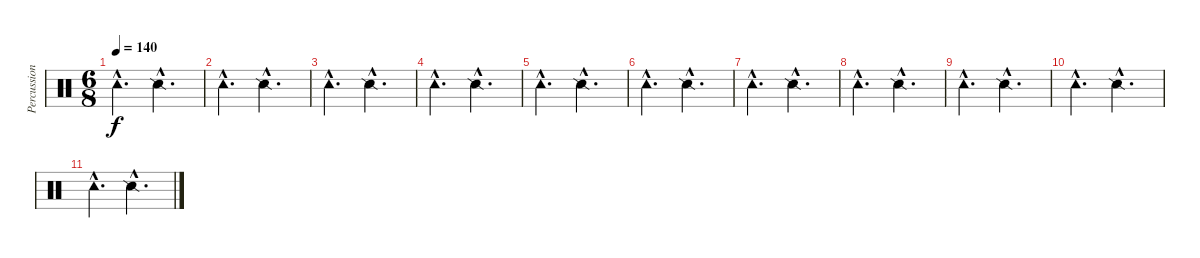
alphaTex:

\track ("Percussion" "Percussion") {instrument percussion}
\staff {score}
\articulation defaults
\ts (6 8)
\tempo 140
\clef neutral
\ks c "Tambourine (hit)"{hac}.4{d dy f} "Snare (side stick) 2"{hac}.4{d}
|
"Tambourine (hit)"{hac}.4{d} "Snare (side stick) 2"{hac}.4{d} |
"Tambourine (hit)"{hac}.4{d} "Snare (side stick) 2"{hac}.4{d} |
"Tambourine (hit)"{hac}.4{d} "Snare (side stick) 2"{hac}.4{d} |
"Tambourine (hit)"{hac}.4{d} "Snare (side stick) 2"{hac}.4{d} |
"Tambourine (hit)"{hac}.4{d} "Snare (side stick) 2"{hac}.4{d} |
"Tambourine (hit)"{hac}.4{d} "Snare (side stick) 2"{hac}.4{d} |
"Tambourine (hit)"{hac}.4{d} "Snare (side stick) 2"{hac}.4{d} |
"Tambourine (hit)"{hac}.4{d} "Snare (side stick) 2"{hac}.4{d} |
"Tambourine (hit)"{hac}.4{d} "Snare (side stick) 2"{hac}.4{d} |
"Tambourine (hit)"{hac}.4{d} "Snare (side stick) 2"{hac}.4{d}
